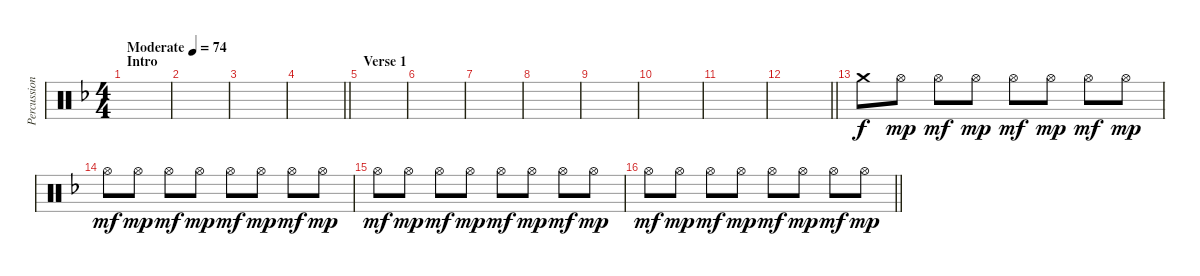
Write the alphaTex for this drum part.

\track ("Percussion" "Percussion") {instrument percussion}
\staff {score}
\articulation defaults
\ts (4 4)
\section ("" "Intro")
\tempo (74 "Moderate")
\clef neutral
\ks f
|
|
|
\barLineRight lightlight
|
\section ("" "Verse 1")
|
|
|
|
|
|
|
\barLineRight lightlight
|
"Crash medium (hit)".8 "Hi-Hat (open)".8{dy mp} "Hi-Hat (open)".8{dy mf} "Hi-Hat (open)".8{dy mp} "Hi-Hat (open)".8{dy mf} "Hi-Hat (open)".8{dy mp} "Hi-Hat (open)".8{dy mf} "Hi-Hat (open)".8{dy mp} |
"Hi-Hat (open)".8{dy mf} "Hi-Hat (open)".8{dy mp} "Hi-Hat (open)".8{dy mf} "Hi-Hat (open)".8{dy mp} "Hi-Hat (open)".8{dy mf} "Hi-Hat (open)".8{dy mp} "Hi-Hat (open)".8{dy mf} "Hi-Hat (open)".8{dy mp} |
"Hi-Hat (open)".8{dy mf} "Hi-Hat (open)".8{dy mp} "Hi-Hat (open)".8{dy mf} "Hi-Hat (open)".8{dy mp} "Hi-Hat (open)".8{dy mf} "Hi-Hat (open)".8{dy mp} "Hi-Hat (open)".8{dy mf} "Hi-Hat (open)".8{dy mp} |
\barLineRight lightlight "Hi-Hat (open)".8{dy mf} "Hi-Hat (open)".8{dy mp} "Hi-Hat (open)".8{dy mf} "Hi-Hat (open)".8{dy mp} "Hi-Hat (open)".8{dy mf} "Hi-Hat (open)".8{dy mp} "Hi-Hat (open)".8{dy mf} "Hi-Hat (open)".8{dy mp}
